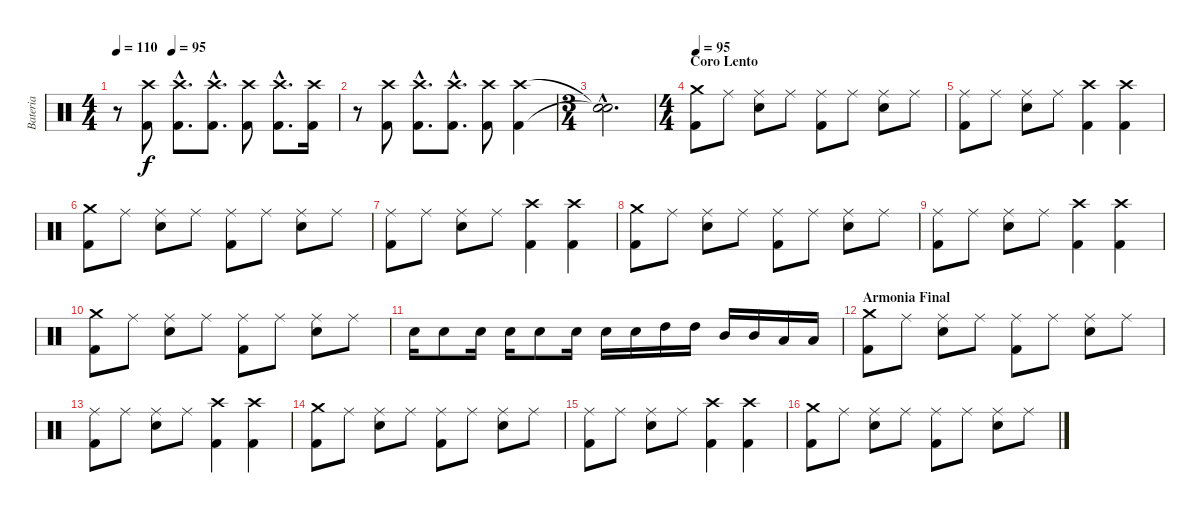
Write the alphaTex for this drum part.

\track ("Bateria" "Bateria") {instrument percussion}
\staff {score}
\articulation defaults
\ts (4 4)
\tempo 110
\tempo (95 0.25)
\clef neutral
\ks c
r.8{dy f} ("Kick (hit) 2" "Crash high (hit)").8 ("Kick (hit) 2"{hac} "Crash high (hit)"{hac}).8{d} ("Kick (hit) 2"{hac} "Crash high (hit)"{hac}).8{d} ("Kick (hit) 2" "Crash high (hit)").8 ("Kick (hit) 2"{hac} "Crash high (hit)"{hac}).8{d} ("Kick (hit) 2" "Crash high (hit)").16 |
r.8 ("Kick (hit) 2" "Crash high (hit)").8 ("Kick (hit) 2"{hac} "Crash high (hit)"{hac}).8{d} ("Kick (hit) 2"{hac} "Crash high (hit)"{hac}).8{d} ("Kick (hit) 2" "Crash high (hit)").8 ("Kick (hit) 2" "Crash high (hit)").4 |
\ts (3 4)
("Snare (hit)"{hac t} "Snare (hit)"{hac t}).2{d} |
\ts (4 4)
\section ("" "Coro Lento")
\tempo 95
("Crash medium (hit)" "Kick (hit) 2").8 "Ride (middle)".8 ("Snare (hit) 2" "Ride (middle)").8 "Ride (middle)".8 ("Kick (hit) 2" "Ride (middle)").8 "Ride (middle)".8 ("Snare (hit) 2" "Ride (middle)").8 "Ride (middle)".8 |
("Kick (hit) 2" "Ride (middle)").8 "Ride (middle)".8 ("Snare (hit) 2" "Ride (middle)").8 "Ride (middle)".8 ("Kick (hit) 2" "Crash high (hit)").4 ("Kick (hit) 2" "Crash high (hit)").4 |
("Crash medium (hit)" "Kick (hit) 2").8 "Ride (middle)".8 ("Snare (hit) 2" "Ride (middle)").8 "Ride (middle)".8 ("Kick (hit) 2" "Ride (middle)").8 "Ride (middle)".8 ("Snare (hit) 2" "Ride (middle)").8 "Ride (middle)".8 |
("Kick (hit) 2" "Ride (middle)").8 "Ride (middle)".8 ("Snare (hit) 2" "Ride (middle)").8 "Ride (middle)".8 ("Kick (hit) 2" "Crash high (hit)").4 ("Kick (hit) 2" "Crash high (hit)").4 |
("Crash medium (hit)" "Kick (hit) 2").8 "Ride (middle)".8 ("Snare (hit) 2" "Ride (middle)").8 "Ride (middle)".8 ("Kick (hit) 2" "Ride (middle)").8 "Ride (middle)".8 ("Snare (hit) 2" "Ride (middle)").8 "Ride (middle)".8 |
("Kick (hit) 2" "Ride (middle)").8 "Ride (middle)".8 ("Snare (hit) 2" "Ride (middle)").8 "Ride (middle)".8 ("Kick (hit) 2" "Crash high (hit)").4 ("Kick (hit) 2" "Crash high (hit)").4 |
("Crash medium (hit)" "Kick (hit) 2").8 "Ride (middle)".8 ("Snare (hit) 2" "Ride (middle)").8 "Ride (middle)".8 ("Kick (hit) 2" "Ride (middle)").8 "Ride (middle)".8 ("Snare (hit) 2" "Ride (middle)").8 "Ride (middle)".8 |
"Snare (hit) 2".16 "Snare (hit) 2".8 "Snare (hit) 2".16 "Snare (hit) 2".16 "Snare (hit) 2".8 "Snare (hit) 2".16 "Snare (hit) 2".16 "Snare (hit) 2".16 "High Tom (hit)".16 "High Tom (hit)".16 "Mid Tom (hit)".16 "Mid Tom (hit)".16 "Low Tom (hit)".16 "Low Tom (hit)".16 |
\section ("" "Armonia Final")
("Crash medium (hit)" "Kick (hit) 2").8 "Ride (middle)".8 ("Snare (hit) 2" "Ride (middle)").8 "Ride (middle)".8 ("Kick (hit) 2" "Ride (middle)").8 "Ride (middle)".8 ("Snare (hit) 2" "Ride (middle)").8 "Ride (middle)".8 |
("Kick (hit) 2" "Ride (middle)").8 "Ride (middle)".8 ("Snare (hit) 2" "Ride (middle)").8 "Ride (middle)".8 ("Kick (hit) 2" "Crash high (hit)").4 ("Kick (hit) 2" "Crash high (hit)").4 |
("Crash medium (hit)" "Kick (hit) 2").8 "Ride (middle)".8 ("Snare (hit) 2" "Ride (middle)").8 "Ride (middle)".8 ("Kick (hit) 2" "Ride (middle)").8 "Ride (middle)".8 ("Snare (hit) 2" "Ride (middle)").8 "Ride (middle)".8 |
("Kick (hit) 2" "Ride (middle)").8 "Ride (middle)".8 ("Snare (hit) 2" "Ride (middle)").8 "Ride (middle)".8 ("Kick (hit) 2" "Crash high (hit)").4 ("Kick (hit) 2" "Crash high (hit)").4 |
("Crash medium (hit)" "Kick (hit) 2").8 "Ride (middle)".8 ("Snare (hit) 2" "Ride (middle)").8 "Ride (middle)".8 ("Kick (hit) 2" "Ride (middle)").8 "Ride (middle)".8 ("Snare (hit) 2" "Ride (middle)").8 "Ride (middle)".8
